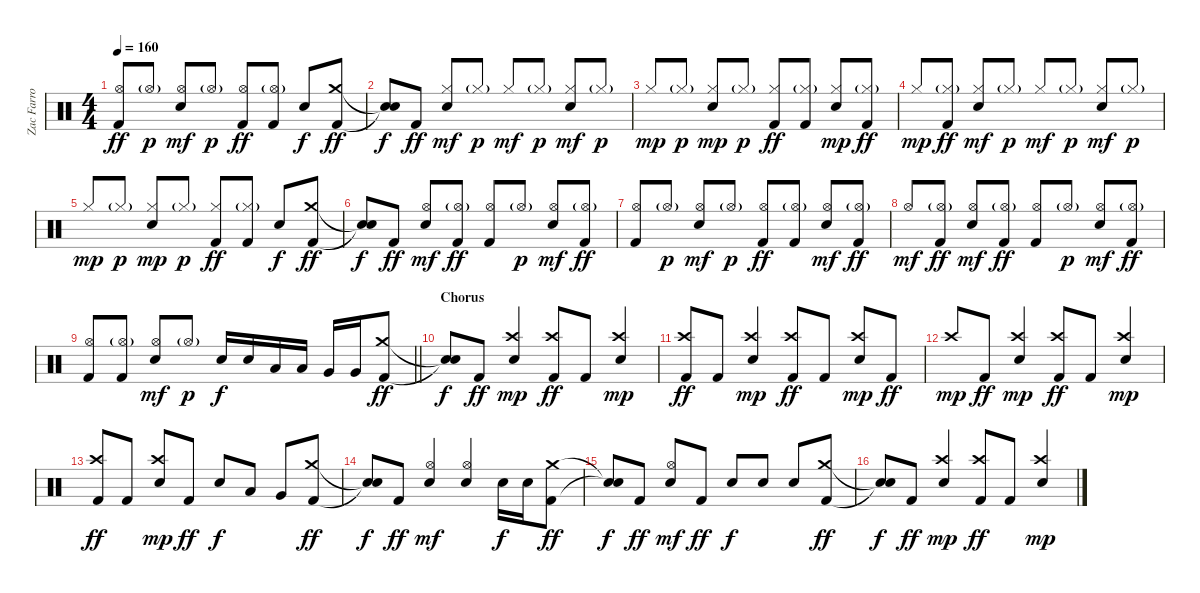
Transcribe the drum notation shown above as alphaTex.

\track ("Zac Farro" "Zac Farro") {instrument percussion}
\staff {score}
\articulation defaults
\ts (4 4)
\tempo 160
\clef neutral
\ks c
("Hi-Hat (open)" "Kick (hit) 2").8{dy ff beam Up} "Hi-Hat (open)"{g}.8{dy p beam Up} ("Hi-Hat (open)" "Snare (hit) 2").8{dy mf beam Up} "Hi-Hat (open)"{g}.8{dy p beam Up} ("Hi-Hat (open)" "Kick (hit) 2").8{dy ff beam Up} ("Hi-Hat (open)"{g} "Kick (hit) 2").8{beam Up} "Snare (hit) 2".8{dy f beam Up} ("Crash medium (hit)" "Kick (hit) 2").8{dy ff beam Up} |
("Snare (hit)"{t} "Snare (hit)"{t}).8{dy f beam Up} "Kick (hit) 2".8{dy ff} ("Hi-Hat (closed)" "Snare (hit) 2").8{dy mf beam Up} "Hi-Hat (closed)"{g}.8{dy p beam Up} "Hi-Hat (closed)".8{dy mf beam Up} "Hi-Hat (closed)"{g}.8{dy p beam Up} ("Hi-Hat (closed)" "Snare (hit) 2").8{dy mf beam Up} "Hi-Hat (closed)"{g}.8{dy p beam Up} |
"Hi-Hat (closed)".8{dy mp beam Up} "Hi-Hat (closed)"{g}.8{dy p beam Up} ("Hi-Hat (closed)" "Snare (hit) 2").8{dy mp beam Up} "Hi-Hat (closed)"{g}.8{dy p beam Up} ("Hi-Hat (closed)" "Kick (hit) 2").8{dy ff beam Up} ("Hi-Hat (closed)"{g} "Kick (hit) 2").8{beam Up} ("Hi-Hat (closed)" "Snare (hit) 2").8{dy mp beam Up} ("Hi-Hat (closed)"{g} "Kick (hit) 2").8{dy ff beam Up} |
"Hi-Hat (closed)".8{dy mp beam Up} ("Hi-Hat (closed)"{g} "Kick (hit) 2").8{dy ff beam Up} ("Hi-Hat (closed)" "Snare (hit) 2").8{dy mf beam Up} "Hi-Hat (closed)"{g}.8{dy p beam Up} "Hi-Hat (closed)".8{dy mf beam Up} "Hi-Hat (closed)"{g}.8{dy p beam Up} ("Hi-Hat (closed)" "Snare (hit) 2").8{dy mf beam Up} "Hi-Hat (closed)"{g}.8{dy p beam Up} |
"Hi-Hat (closed)".8{dy mp beam Up} "Hi-Hat (closed)"{g}.8{dy p beam Up} ("Hi-Hat (closed)" "Snare (hit) 2").8{dy mp beam Up} "Hi-Hat (closed)"{g}.8{dy p beam Up} ("Hi-Hat (closed)" "Kick (hit) 2").8{dy ff beam Up} ("Hi-Hat (closed)"{g} "Kick (hit) 2").8{beam Up} "Snare (hit) 2".8{dy f beam Up} ("Crash medium (hit)" "Kick (hit) 2").8{dy ff beam Up} |
("Snare (hit)"{t} "Snare (hit)"{t}).8{dy f beam Up} "Kick (hit) 2".8{dy ff} ("Hi-Hat (open)" "Snare (hit) 2").8{dy mf beam Up} ("Hi-Hat (open)"{g} "Kick (hit) 2").8{dy ff beam Up} ("Hi-Hat (open)" "Kick (hit) 2").8{beam Up} "Hi-Hat (open)"{g}.8{dy p beam Up} ("Hi-Hat (open)" "Snare (hit) 2").8{dy mf beam Up} ("Hi-Hat (open)"{g} "Kick (hit) 2").8{dy ff beam Up} |
("Hi-Hat (open)" "Kick (hit) 2").8{beam Up} "Hi-Hat (open)"{g}.8{dy p beam Up} ("Hi-Hat (open)" "Snare (hit) 2").8{dy mf beam Up} "Hi-Hat (open)"{g}.8{dy p beam Up} ("Hi-Hat (open)" "Kick (hit) 2").8{dy ff beam Up} ("Hi-Hat (open)"{g} "Kick (hit) 2").8{beam Up} ("Hi-Hat (open)" "Snare (hit) 2").8{dy mf beam Up} ("Hi-Hat (open)"{g} "Kick (hit) 2").8{dy ff beam Up} |
"Hi-Hat (open)".8{dy mf beam Up} ("Hi-Hat (open)"{g} "Kick (hit) 2").8{dy ff beam Up} ("Hi-Hat (open)" "Snare (hit) 2").8{dy mf beam Up} ("Hi-Hat (open)"{g} "Kick (hit) 2").8{dy ff beam Up} ("Hi-Hat (open)" "Kick (hit) 2").8{beam Up} "Hi-Hat (open)"{g}.8{dy p beam Up} ("Hi-Hat (open)" "Snare (hit) 2").8{dy mf beam Up} ("Hi-Hat (open)"{g} "Kick (hit) 2").8{dy ff beam Up} |
\barLineRight lightlight
("Hi-Hat (open)" "Kick (hit) 2").8{beam Up} ("Hi-Hat (open)"{g} "Kick (hit) 2").8{beam Up} ("Hi-Hat (open)" "Snare (hit) 2").8{dy mf beam Up} "Hi-Hat (open)"{g}.8{dy p beam Up} "Snare (hit) 2".16{dy f beam Up} "Snare (hit) 2".16{beam Up} "Low Tom (hit)".16{beam Up} "Low Tom (hit)".16{beam Up} "Very Low Tom (hit)".16{beam Up} "Very Low Tom (hit)".16{beam Up} ("Crash medium (hit)" "Kick (hit) 2").8{dy ff beam Up} |
\section ("" "Chorus")
("Snare (hit)"{t} "Snare (hit)"{t}).8{dy f beam Up} "Kick (hit) 2".8{dy ff} ("Crash high (hit)" "Snare (hit) 2").4{dy mp beam Up} ("Crash high (hit)" "Kick (hit) 2").8{dy ff beam Up} "Kick (hit) 2".8{beam Up} ("Crash high (hit)" "Snare (hit) 2").4{dy mp beam Up} |
("Crash high (hit)" "Kick (hit) 2").8{dy ff beam Up} "Kick (hit) 2".8{beam Up} ("Crash high (hit)" "Snare (hit) 2").4{dy mp beam Up} ("Crash high (hit)" "Kick (hit) 2").8{dy ff beam Up} "Kick (hit) 2".8{beam Up} ("Crash high (hit)" "Snare (hit) 2").8{dy mp beam Up} "Kick (hit) 2".8{dy ff beam Up} |
"Crash high (hit)".8{dy mp beam Up} "Kick (hit) 2".8{dy ff beam Up} ("Crash high (hit)" "Snare (hit) 2").4{dy mp beam Up} ("Crash high (hit)" "Kick (hit) 2").8{dy ff beam Up} "Kick (hit) 2".8{beam Up} ("Crash high (hit)" "Snare (hit) 2").4{dy mp beam Up} |
("Crash high (hit)" "Kick (hit) 2").8{dy ff beam Up} "Kick (hit) 2".8{beam Up} ("Crash high (hit)" "Snare (hit) 2").8{dy mp beam Up} "Kick (hit) 2".8{dy ff beam Up} "Snare (hit) 2".8{dy f beam Up} "Low Tom (hit)".8{beam Up} "Very Low Tom (hit)".8{beam Up} ("Crash medium (hit)" "Kick (hit) 2").8{dy ff beam Up} |
("Snare (hit)"{t} "Snare (hit)"{t}).8{dy f beam Up} "Kick (hit) 2".8{dy ff} ("Hi-Hat (open)" "Snare (hit) 2").4{dy mf beam Up} ("Hi-Hat (open)" "Snare (hit) 2").4{beam Up} "Snare (hit) 2".16{dy f beam Down} "Snare (hit) 2".16{beam Down} ("Crash medium (hit)" "Kick (hit) 2").8{dy ff beam Down} |
("Snare (hit)"{t} "Snare (hit)"{t}).8{dy f beam Up} "Kick (hit) 2".8{dy ff} ("Hi-Hat (open)" "Snare (hit) 2").8{dy mf beam Up} "Kick (hit) 2".8{dy ff beam Up} "Snare (hit) 2".8{dy f beam Up} "Snare (hit) 2".8{beam Up} "Snare (hit) 2".8{beam Up} ("Crash medium (hit)" "Kick (hit) 2").8{dy ff beam Up} |
("Snare (hit)"{t} "Snare (hit)"{t}).8{dy f beam Up} "Kick (hit) 2".8{dy ff} ("Crash high (hit)" "Snare (hit) 2").4{dy mp beam Up} ("Crash high (hit)" "Kick (hit) 2").8{dy ff beam Up} "Kick (hit) 2".8{beam Up} ("Crash high (hit)" "Snare (hit) 2").4{dy mp beam Up}
